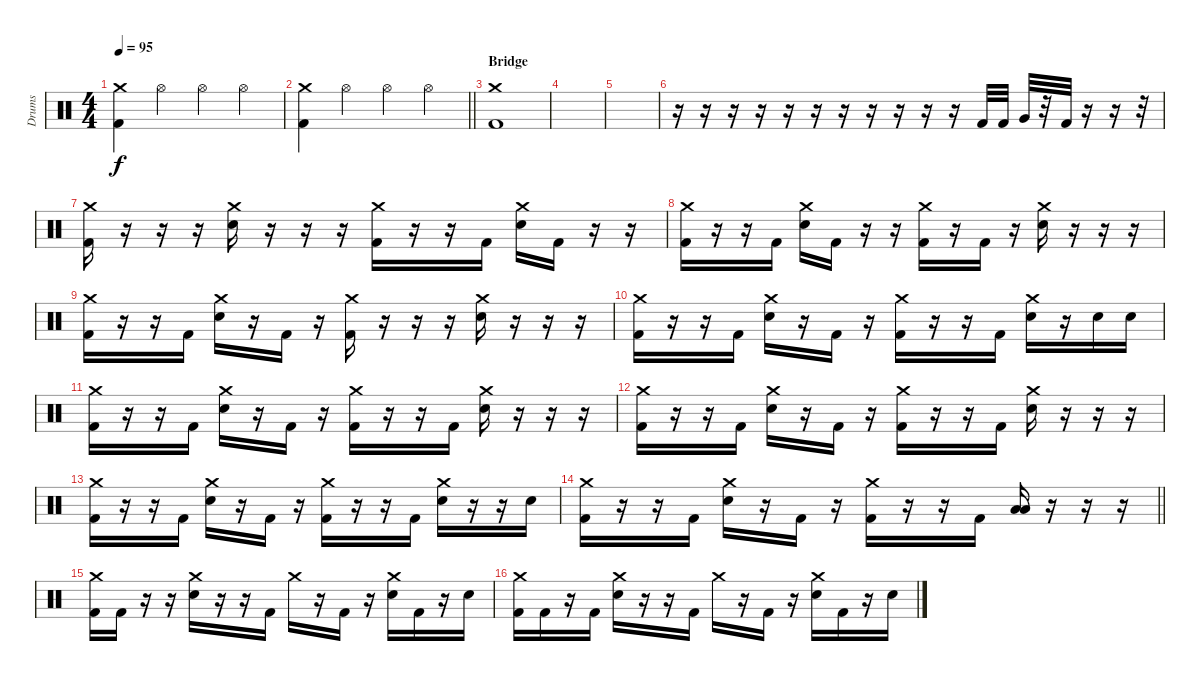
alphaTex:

\track ("Drums" "Drums") {instrument percussion}
\staff {score}
\articulation defaults
\ts (4 4)
\tempo 95
\clef neutral
\ks c
("Crash medium (hit)" "Kick (hit) 2").4{dy f} "Hi-Hat (open)".4 "Hi-Hat (open)".4 "Hi-Hat (open)".4 |
\barLineRight lightlight
("Crash medium (hit)" "Kick (hit) 2").4 "Hi-Hat (open)".4 "Hi-Hat (open)".4 "Hi-Hat (open)".4 |
\section ("" "Bridge")
("Crash medium (hit)" "Kick (hit) 2").1 |
|
|
r.16 r.16 r.16 r.16 r.16 r.16 r.16 r.16 r.16 r.16 r.16 "Kick (hit) 2".32 "Kick (hit) 2".32 "Very Low Tom (hit)".32 r.32 "Kick (hit) 2".32 r.16 r.16 r.32 |
("Crash medium (hit)" "Kick (hit) 2").16 r.16 r.16 r.16 ("Crash medium (hit)" "Electric Snare (hit)").16 r.16 r.16 r.16 ("Crash medium (hit)" "Kick (hit) 2").16 r.16 r.16 "Kick (hit) 2".16 ("Crash medium (hit)" "Electric Snare (hit)").16 "Kick (hit) 2".16 r.16 r.16 |
("Crash medium (hit)" "Kick (hit) 2").16 r.16 r.16 "Kick (hit) 2".16 ("Crash medium (hit)" "Electric Snare (hit)").16 "Kick (hit) 2".16 r.16 r.16 ("Crash medium (hit)" "Kick (hit) 2").16 r.16 "Kick (hit) 2".16 r.16 ("Crash medium (hit)" "Electric Snare (hit)").16 r.16 r.16 r.16 |
("Crash medium (hit)" "Kick (hit) 2").16 r.16 r.16 "Kick (hit) 2".16 ("Crash medium (hit)" "Electric Snare (hit)").16 r.16 "Kick (hit) 2".16 r.16 ("Crash medium (hit)" "Kick (hit) 2").16 r.16 r.16 r.16 ("Crash medium (hit)" "Electric Snare (hit)").16 r.16 r.16 r.16 |
("Crash medium (hit)" "Kick (hit) 2").16 r.16 r.16 "Kick (hit) 2".16 ("Crash medium (hit)" "Electric Snare (hit)").16 r.16 "Kick (hit) 2".16 r.16 ("Crash medium (hit)" "Kick (hit) 2").16 r.16 r.16 "Kick (hit) 2".16 ("Crash medium (hit)" "Electric Snare (hit)").16 r.16 "Electric Snare (hit)".16 "Electric Snare (hit)".16 |
("Crash medium (hit)" "Kick (hit) 2").16 r.16 r.16 "Kick (hit) 2".16 ("Crash medium (hit)" "Electric Snare (hit)").16 r.16 "Kick (hit) 2".16 r.16 ("Crash medium (hit)" "Kick (hit) 2").16 r.16 r.16 "Kick (hit) 2".16 ("Crash medium (hit)" "Electric Snare (hit)").16 r.16 r.16 r.16 |
("Crash medium (hit)" "Kick (hit) 2").16 r.16 r.16 "Kick (hit) 2".16 ("Crash medium (hit)" "Electric Snare (hit)").16 r.16 "Kick (hit) 2".16 r.16 ("Crash medium (hit)" "Kick (hit) 2").16 r.16 r.16 "Kick (hit) 2".16 ("Crash medium (hit)" "Electric Snare (hit)").16 r.16 r.16 r.16 |
("Crash medium (hit)" "Kick (hit) 2").16 r.16 r.16 "Kick (hit) 2".16 ("Crash medium (hit)" "Electric Snare (hit)").16 r.16 "Kick (hit) 2".16 r.16 ("Crash medium (hit)" "Kick (hit) 2").16 r.16 r.16 "Kick (hit) 2".16 ("Crash medium (hit)" "Electric Snare (hit)").16 r.16 r.16 "Electric Snare (hit)".16 |
\barLineRight lightlight
("Crash medium (hit)" "Kick (hit) 2").16 r.16 r.16 "Kick (hit) 2".16 ("Crash medium (hit)" "Electric Snare (hit)").16 r.16 "Kick (hit) 2".16 r.16 ("Crash medium (hit)" "Kick (hit) 2").16 r.16 r.16 "Kick (hit) 2".16 ("Low Tom (hit)" "Low Tom (hit)").16 r.16 r.16 r.16 |
\section ("" "")
("Crash medium (hit)" "Kick (hit) 2").16 "Kick (hit) 2".16 r.16 r.16 ("Crash medium (hit)" "Electric Snare (hit)").16 r.16 r.16 "Kick (hit) 2".16 "Crash medium (hit)".16 r.16 "Kick (hit) 2".16 r.16 ("Crash medium (hit)" "Electric Snare (hit)").16 "Kick (hit) 2".16 r.16 "Electric Snare (hit)".16 |
("Crash medium (hit)" "Kick (hit) 2").16 "Kick (hit) 2".16 r.16 "Kick (hit) 2".16 ("Crash medium (hit)" "Electric Snare (hit)").16 r.16 r.16 "Kick (hit) 2".16 "Crash medium (hit)".16 r.16 "Kick (hit) 2".16 r.16 ("Crash medium (hit)" "Electric Snare (hit)").16 "Kick (hit) 2".16 r.16 "Electric Snare (hit)".16
